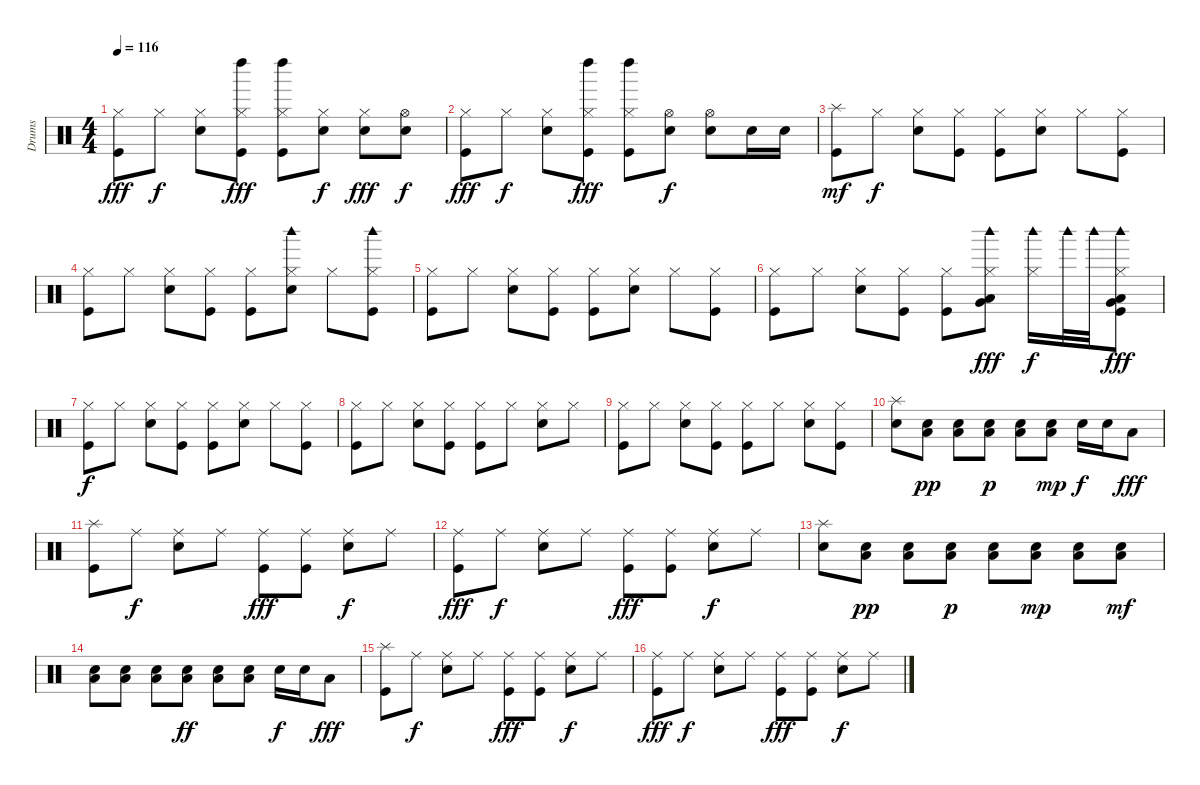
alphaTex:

\track ("Drums" "Drums") {instrument percussion}
\staff {score}
\articulation defaults
\ts (4 4)
\tempo 116
\clef neutral
\ks c
("Hi-Hat (closed)" "Kick (hit)").8{dy fff} "Hi-Hat (closed)".8{dy f} ("Hi-Hat (closed)" "Snare (hit) 2").8 ("Hi-Hat (closed)" "Left Maraca (hit)" "Kick (hit)").8{dy fff} ("Hi-Hat (closed)" "Left Maraca (hit)" "Kick (hit)").8 ("Hi-Hat (closed)" "Snare (hit) 2").8{dy f} ("Hi-Hat (closed)" "Snare (hit) 2").8{dy fff} ("Hi-Hat (open)" "Snare (hit) 2").8{dy f} |
("Hi-Hat (closed)" "Kick (hit)").8{dy fff} "Hi-Hat (closed)".8{dy f} ("Hi-Hat (closed)" "Snare (hit) 2").8 ("Hi-Hat (closed)" "Left Maraca (hit)" "Kick (hit)").8{dy fff} ("Hi-Hat (closed)" "Left Maraca (hit)" "Kick (hit)").8 ("Hi-Hat (open)" "Snare (hit) 2").8{dy f} ("Hi-Hat (open)" "Snare (hit) 2").8 "Snare (hit) 2".16 "Snare (hit) 2".16 |
("Splash (hit)" "Kick (hit)").8{dy mf} "Hi-Hat (closed)".8{dy f} ("Hi-Hat (closed)" "Snare (hit) 2").8 ("Hi-Hat (closed)" "Kick (hit)").8 ("Hi-Hat (closed)" "Kick (hit)").8 ("Hi-Hat (closed)" "Snare (hit) 2").8 "Hi-Hat (closed)".8 ("Hi-Hat (closed)" "Kick (hit)").8 |
("Hi-Hat (closed)" "Kick (hit)").8 "Hi-Hat (closed)".8 ("Hi-Hat (closed)" "Snare (hit) 2").8 ("Hi-Hat (closed)" "Kick (hit)").8 ("Hi-Hat (closed)" "Kick (hit)").8 ("Hi-Hat (closed)" "Woodblock high (hit)" "Snare (hit) 2").8 "Hi-Hat (closed)".8 ("Hi-Hat (closed)" "Woodblock high (hit)" "Kick (hit)").8 |
("Hi-Hat (closed)" "Kick (hit)").8 "Hi-Hat (closed)".8 ("Hi-Hat (closed)" "Snare (hit) 2").8 ("Hi-Hat (closed)" "Kick (hit)").8 ("Hi-Hat (closed)" "Kick (hit)").8 ("Hi-Hat (closed)" "Snare (hit) 2").8 "Hi-Hat (closed)".8 ("Hi-Hat (closed)" "Kick (hit)").8 |
("Hi-Hat (closed)" "Kick (hit)").8 "Hi-Hat (closed)".8 ("Hi-Hat (closed)" "Snare (hit) 2").8 ("Hi-Hat (closed)" "Kick (hit)").8 ("Hi-Hat (closed)" "Kick (hit)").8 ("Hi-Hat (closed)" "Woodblock high (hit)" "Low Tom (hit)" "Very Low Tom (hit)").8{dy fff} ("Hi-Hat (closed)" "Woodblock high (hit)").16{dy f} "Woodblock high (hit)".32 "Woodblock high (hit)".32 ("Hi-Hat (closed)" "Woodblock high (hit)" "Low Tom (hit)" "Very Low Tom (hit)" "Kick (hit)").8{dy fff} |
("Hi-Hat (closed)" "Kick (hit)").8{dy f} "Hi-Hat (closed)".8 ("Hi-Hat (closed)" "Snare (hit) 2").8 ("Hi-Hat (closed)" "Kick (hit)").8 ("Hi-Hat (closed)" "Kick (hit)").8 ("Hi-Hat (closed)" "Snare (hit) 2").8 "Hi-Hat (closed)".8 ("Hi-Hat (closed)" "Kick (hit)").8 |
("Hi-Hat (closed)" "Kick (hit)").8 "Hi-Hat (closed)".8 ("Hi-Hat (closed)" "Snare (hit) 2").8 ("Hi-Hat (closed)" "Kick (hit)").8 ("Hi-Hat (closed)" "Kick (hit)").8 "Hi-Hat (closed)".8 ("Hi-Hat (closed)" "Snare (hit) 2").8 "Hi-Hat (closed)".8 |
("Hi-Hat (closed)" "Kick (hit)").8 "Hi-Hat (closed)".8 ("Hi-Hat (closed)" "Snare (hit) 2").8 ("Hi-Hat (closed)" "Kick (hit)").8 ("Hi-Hat (closed)" "Kick (hit)").8 "Hi-Hat (closed)".8 ("Hi-Hat (closed)" "Snare (hit) 2").8 ("Hi-Hat (closed)" "Kick (hit)").8 |
("Splash (hit)" "Snare (hit) 2").8 ("Low Tom (hit)" "Snare (hit) 2").8{dy pp} ("Low Tom (hit)" "Snare (hit) 2").8 ("Low Tom (hit)" "Snare (hit) 2").8{dy p} ("Low Tom (hit)" "Snare (hit) 2").8 ("Low Tom (hit)" "Snare (hit) 2").8{dy mp} "Snare (hit) 2".16{dy f} "Snare (hit) 2".16 "Low Tom (hit)".8{dy fff} |
("Splash (hit)" "Kick (hit)").8 "Ride (middle)".8{dy f} ("Ride (middle)" "Snare (hit) 2").8 "Ride (middle)".8 ("Ride (middle)" "Kick (hit)").8{dy fff} ("Ride (middle)" "Kick (hit)").8 ("Ride (middle)" "Snare (hit) 2").8{dy f} "Ride (middle)".8 |
("Ride (middle)" "Kick (hit)").8{dy fff} "Ride (middle)".8{dy f} ("Ride (middle)" "Snare (hit) 2").8 "Ride (middle)".8 ("Ride (middle)" "Kick (hit)").8{dy fff} ("Ride (middle)" "Kick (hit)").8 ("Ride (middle)" "Snare (hit) 2").8{dy f} "Ride (middle)".8 |
("Splash (hit)" "Snare (hit) 2").8 ("Low Tom (hit)" "Snare (hit) 2").8{dy pp} ("Low Tom (hit)" "Snare (hit) 2").8 ("Low Tom (hit)" "Snare (hit) 2").8{dy p} ("Low Tom (hit)" "Snare (hit) 2").8 ("Low Tom (hit)" "Snare (hit) 2").8{dy mp} ("Low Tom (hit)" "Snare (hit) 2").8 ("Low Tom (hit)" "Snare (hit) 2").8{dy mf} |
("Low Tom (hit)" "Snare (hit) 2").8 ("Low Tom (hit)" "Snare (hit) 2").8 ("Low Tom (hit)" "Snare (hit) 2").8 ("Low Tom (hit)" "Snare (hit) 2").8{dy ff} ("Low Tom (hit)" "Snare (hit) 2").8 ("Low Tom (hit)" "Snare (hit) 2").8 "Snare (hit) 2".16{dy f} "Snare (hit) 2".16 "Low Tom (hit)".8{dy fff} |
("Splash (hit)" "Kick (hit)").8 "Ride (middle)".8{dy f} ("Ride (middle)" "Snare (hit) 2").8 "Ride (middle)".8 ("Ride (middle)" "Kick (hit)").8{dy fff} ("Ride (middle)" "Kick (hit)").8 ("Ride (middle)" "Snare (hit) 2").8{dy f} "Ride (middle)".8 |
("Ride (middle)" "Kick (hit)").8{dy fff} "Ride (middle)".8{dy f} ("Ride (middle)" "Snare (hit) 2").8 "Ride (middle)".8 ("Ride (middle)" "Kick (hit)").8{dy fff} ("Ride (middle)" "Kick (hit)").8 ("Ride (middle)" "Snare (hit) 2").8{dy f} "Ride (middle)".8
